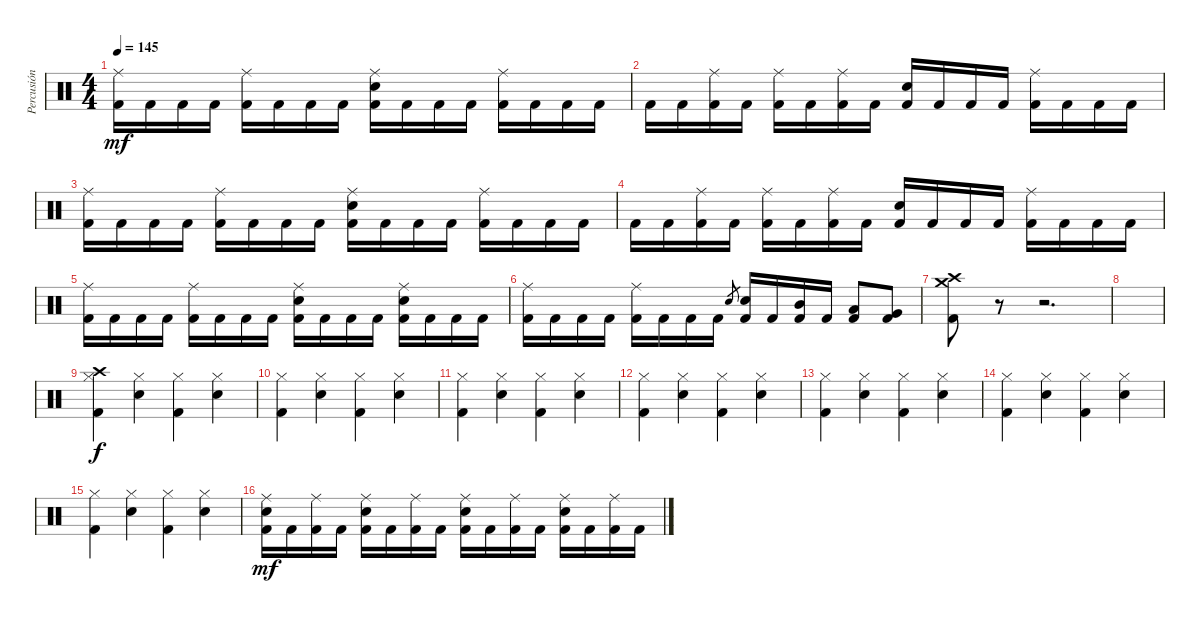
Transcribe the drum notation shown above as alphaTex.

\track ("Percusión" "Percusión") {instrument percussion}
\staff {score}
\articulation defaults
\ts (4 4)
\tempo 145
\clef neutral
\ks c
("Ride (middle)" "Kick (hit) 2").16{dy mf} "Kick (hit) 2".16 "Kick (hit) 2".16 "Kick (hit) 2".16 ("Ride (middle)" "Kick (hit) 2").16 "Kick (hit) 2".16 "Kick (hit) 2".16 "Kick (hit) 2".16 ("Ride (middle)" "Snare (hit) 2" "Kick (hit) 2").16 "Kick (hit) 2".16 "Kick (hit) 2".16 "Kick (hit) 2".16 ("Ride (middle)" "Kick (hit) 2").16 "Kick (hit) 2".16 "Kick (hit) 2".16 "Kick (hit) 2".16 |
"Kick (hit) 2".16 "Kick (hit) 2".16 ("Ride (middle)" "Kick (hit) 2").16 "Kick (hit) 2".16 ("Ride (middle)" "Kick (hit) 2").16 "Kick (hit) 2".16 ("Ride (middle)" "Kick (hit) 2").16 "Kick (hit) 2".16 ("Snare (hit) 2" "Kick (hit) 2").16 "Kick (hit) 2".16 "Kick (hit) 2".16 "Kick (hit) 2".16 ("Ride (middle)" "Kick (hit) 2").16 "Kick (hit) 2".16 "Kick (hit) 2".16 "Kick (hit) 2".16 |
("Ride (middle)" "Kick (hit) 2").16 "Kick (hit) 2".16 "Kick (hit) 2".16 "Kick (hit) 2".16 ("Ride (middle)" "Kick (hit) 2").16 "Kick (hit) 2".16 "Kick (hit) 2".16 "Kick (hit) 2".16 ("Ride (middle)" "Snare (hit) 2" "Kick (hit) 2").16 "Kick (hit) 2".16 "Kick (hit) 2".16 "Kick (hit) 2".16 ("Ride (middle)" "Kick (hit) 2").16 "Kick (hit) 2".16 "Kick (hit) 2".16 "Kick (hit) 2".16 |
"Kick (hit) 2".16 "Kick (hit) 2".16 ("Ride (middle)" "Kick (hit) 2").16 "Kick (hit) 2".16 ("Ride (middle)" "Kick (hit) 2").16 "Kick (hit) 2".16 ("Ride (middle)" "Kick (hit) 2").16 "Kick (hit) 2".16 ("Snare (hit) 2" "Kick (hit) 2").16 "Kick (hit) 2".16 "Kick (hit) 2".16 "Kick (hit) 2".16 ("Ride (middle)" "Kick (hit) 2").16 "Kick (hit) 2".16 "Kick (hit) 2".16 "Kick (hit) 2".16 |
("Ride (middle)" "Kick (hit) 2").16 "Kick (hit) 2".16 "Kick (hit) 2".16 "Kick (hit) 2".16 ("Ride (middle)" "Kick (hit) 2").16 "Kick (hit) 2".16 "Kick (hit) 2".16 "Kick (hit) 2".16 ("Ride (middle)" "Snare (hit) 2" "Kick (hit) 2").16 "Kick (hit) 2".16 "Kick (hit) 2".16 "Kick (hit) 2".16 ("Ride (middle)" "Snare (hit) 2" "Kick (hit) 2").16 "Kick (hit) 2".16 "Kick (hit) 2".16 "Kick (hit) 2".16 |
("Ride (middle)" "Kick (hit) 2").16 "Kick (hit) 2".16 "Kick (hit) 2".16 "Kick (hit) 2".16 ("Ride (middle)" "Kick (hit) 2").16 "Kick (hit) 2".16 "Kick (hit) 2".16 "Kick (hit) 2".16 "Snare (hit) 2".8{gr} ("Snare (hit) 2" "Kick (hit) 2").16 "Kick (hit) 2".16 ("Mid Tom (hit)" "Kick (hit) 2").16 "Kick (hit) 2".16 ("Low Tom (hit)" "Kick (hit) 2").8 ("Very Low Tom (hit)" "Kick (hit) 2").8 |
("Crash medium (hit)" "Crash high (hit)" "Kick (hit) 2").8 r.8 r.2{d} |
|
("Crash high (hit)" "Hi-Hat (closed)" "Kick (hit) 2").4{dy f} ("Hi-Hat (closed)" "Snare (hit) 2").4 ("Hi-Hat (closed)" "Kick (hit) 2").4 ("Hi-Hat (closed)" "Snare (hit) 2").4 |
("Hi-Hat (closed)" "Kick (hit) 2").4 ("Hi-Hat (closed)" "Snare (hit) 2").4 ("Hi-Hat (closed)" "Kick (hit) 2").4 ("Hi-Hat (closed)" "Snare (hit) 2").4 |
("Hi-Hat (closed)" "Kick (hit) 2").4 ("Hi-Hat (closed)" "Snare (hit) 2").4 ("Hi-Hat (closed)" "Kick (hit) 2").4 ("Hi-Hat (closed)" "Snare (hit) 2").4 |
("Hi-Hat (closed)" "Kick (hit) 2").4 ("Hi-Hat (closed)" "Snare (hit) 2").4 ("Hi-Hat (closed)" "Kick (hit) 2").4 ("Hi-Hat (closed)" "Snare (hit) 2").4 |
("Hi-Hat (closed)" "Kick (hit) 2").4 ("Hi-Hat (closed)" "Snare (hit) 2").4 ("Hi-Hat (closed)" "Kick (hit) 2").4 ("Hi-Hat (closed)" "Snare (hit) 2").4 |
("Hi-Hat (closed)" "Kick (hit) 2").4 ("Hi-Hat (closed)" "Snare (hit) 2").4 ("Hi-Hat (closed)" "Kick (hit) 2").4 ("Hi-Hat (closed)" "Snare (hit) 2").4 |
("Hi-Hat (closed)" "Kick (hit) 2").4 ("Hi-Hat (closed)" "Snare (hit) 2").4 ("Hi-Hat (closed)" "Kick (hit) 2").4 ("Hi-Hat (closed)" "Snare (hit) 2").4 |
("Ride (middle)" "Snare (hit) 2" "Kick (hit) 2").16{dy mf} "Kick (hit) 2".16 ("Ride (middle)" "Kick (hit) 2").16 "Kick (hit) 2".16 ("Ride (middle)" "Snare (hit) 2" "Kick (hit) 2").16 "Kick (hit) 2".16 ("Ride (middle)" "Kick (hit) 2").16 "Kick (hit) 2".16 ("Ride (middle)" "Snare (hit) 2" "Kick (hit) 2").16 "Kick (hit) 2".16 ("Ride (middle)" "Kick (hit) 2").16 "Kick (hit) 2".16 ("Ride (middle)" "Snare (hit) 2" "Kick (hit) 2").16 "Kick (hit) 2".16 ("Ride (middle)" "Kick (hit) 2").16 "Kick (hit) 2".16
